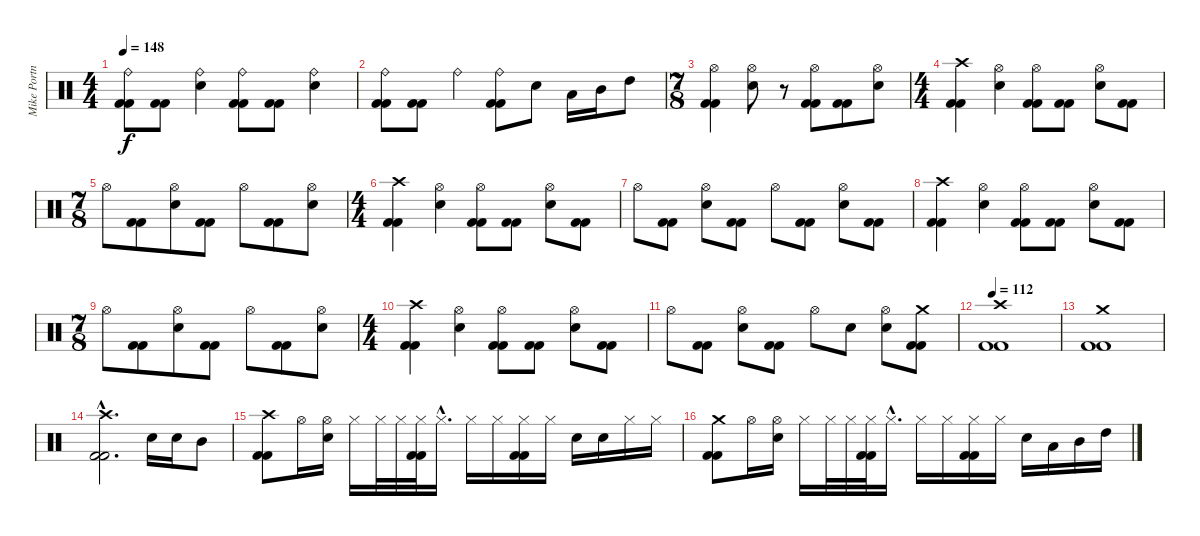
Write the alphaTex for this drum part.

\track ("Mike Portnoy - Drum" "Mike Portn") {instrument percussion}
\staff {score}
\articulation defaults
\ts (4 4)
\tempo 148
\clef neutral
\ks c
("Ride (bell)" "Kick (hit) 2" "Kick (hit) 2").8{dy f} ("Kick (hit) 2" "Kick (hit) 2").8 ("Ride (bell)" "Snare (hit) 2").4 ("Ride (bell)" "Kick (hit) 2" "Kick (hit) 2").8 ("Kick (hit) 2" "Kick (hit) 2").8 ("Ride (bell)" "Snare (hit) 2").4 |
("Ride (bell)" "Kick (hit) 2" "Kick (hit) 2").8 ("Kick (hit) 2" "Kick (hit) 2").8 "Ride (bell)".4 ("Ride (bell)" "Kick (hit) 2" "Kick (hit) 2").8 "Snare (hit) 2".8 "Low Tom (hit)".16 "Mid Tom (hit)".16 "High Tom (hit)".8 |
\ts (7 8)
("Hi-Hat (open)" "Kick (hit) 2" "Kick (hit) 2").4 ("Hi-Hat (open)" "Snare (hit) 2").8 r.8 ("Hi-Hat (open)" "Kick (hit) 2" "Kick (hit) 2").8 ("Kick (hit) 2" "Kick (hit) 2").8 ("Hi-Hat (open)" "Snare (hit) 2").8 |
\ts (4 4)
("Crash high (hit)" "Kick (hit) 2" "Kick (hit) 2").4 ("Hi-Hat (open)" "Snare (hit) 2").4 ("Hi-Hat (open)" "Kick (hit) 2" "Kick (hit) 2").8 ("Kick (hit) 2" "Kick (hit) 2").8 ("Hi-Hat (open)" "Snare (hit) 2").8 ("Kick (hit) 2" "Kick (hit) 2").8 |
\ts (7 8)
"Hi-Hat (open)".8 ("Kick (hit) 2" "Kick (hit) 2").8 ("Hi-Hat (open)" "Snare (hit) 2").8 ("Kick (hit) 2" "Kick (hit) 2").8 "Hi-Hat (open)".8 ("Kick (hit) 2" "Kick (hit) 2").8 ("Hi-Hat (open)" "Snare (hit) 2").8 |
\ts (4 4)
("Crash high (hit)" "Kick (hit) 2" "Kick (hit) 2").4 ("Hi-Hat (open)" "Snare (hit) 2").4 ("Hi-Hat (open)" "Kick (hit) 2" "Kick (hit) 2").8 ("Kick (hit) 2" "Kick (hit) 2").8 ("Hi-Hat (open)" "Snare (hit) 2").8 ("Kick (hit) 2" "Kick (hit) 2").8 |
"Hi-Hat (open)".8 ("Kick (hit) 2" "Kick (hit) 2").8 ("Hi-Hat (open)" "Snare (hit) 2").8 ("Kick (hit) 2" "Kick (hit) 2").8 "Hi-Hat (open)".8 ("Kick (hit) 2" "Kick (hit) 2").8 ("Hi-Hat (open)" "Snare (hit) 2").8 ("Kick (hit) 2" "Kick (hit) 2").8 |
("Crash high (hit)" "Kick (hit) 2" "Kick (hit) 2").4 ("Hi-Hat (open)" "Snare (hit) 2").4 ("Hi-Hat (open)" "Kick (hit) 2" "Kick (hit) 2").8 ("Kick (hit) 2" "Kick (hit) 2").8 ("Hi-Hat (open)" "Snare (hit) 2").8 ("Kick (hit) 2" "Kick (hit) 2").8 |
\ts (7 8)
"Hi-Hat (open)".8 ("Kick (hit) 2" "Kick (hit) 2").8 ("Hi-Hat (open)" "Snare (hit) 2").8 ("Kick (hit) 2" "Kick (hit) 2").8 "Hi-Hat (open)".8 ("Kick (hit) 2" "Kick (hit) 2").8 ("Hi-Hat (open)" "Snare (hit) 2").8 |
\ts (4 4)
("Crash high (hit)" "Kick (hit) 2" "Kick (hit) 2").4 ("Hi-Hat (open)" "Snare (hit) 2").4 ("Hi-Hat (open)" "Kick (hit) 2" "Kick (hit) 2").8 ("Kick (hit) 2" "Kick (hit) 2").8 ("Hi-Hat (open)" "Snare (hit) 2").8 ("Kick (hit) 2" "Kick (hit) 2").8 |
"Hi-Hat (open)".8 ("Kick (hit) 2" "Kick (hit) 2").8 ("Hi-Hat (open)" "Snare (hit) 2").8 ("Kick (hit) 2" "Kick (hit) 2").8 "Hi-Hat (open)".8 "Snare (hit) 2".8 ("Hi-Hat (open)" "Snare (hit) 2").8 ("Crash medium (hit)" "Kick (hit) 2" "Kick (hit) 2").8 |
\tempo 112
("Crash high (hit)" "Kick (hit) 2" "Kick (hit) 2").1 |
("Crash medium (hit)" "Kick (hit) 2" "Kick (hit) 2").1 |
("Crash high (hit)"{hac} "Kick (hit) 2"{hac} "Kick (hit) 2"{hac}).2{d} "Snare (hit) 2".16 "Snare (hit) 2".16 "Mid Tom (hit)".8 |
("Crash high (hit)" "Kick (hit) 2" "Kick (hit) 2").8 "Hi-Hat (open)".16 ("Hi-Hat (open)" "Snare (hit) 2").16 "Hi-Hat (closed)".16 "Hi-Hat (closed)".32 "Hi-Hat (closed)".32 ("Hi-Hat (closed)" "Kick (hit) 2" "Kick (hit) 2").32 "Hi-Hat (closed)"{hac}.16{d} "Hi-Hat (closed)".16 "Hi-Hat (closed)".16 ("Hi-Hat (closed)" "Kick (hit) 2" "Kick (hit) 2").16 "Hi-Hat (closed)".16 "Snare (hit) 2".16 "Snare (hit) 2".16 "Hi-Hat (closed)".16 "Hi-Hat (closed)".16 |
("Crash medium (hit)" "Kick (hit) 2" "Kick (hit) 2").8 "Hi-Hat (open)".16 ("Hi-Hat (open)" "Snare (hit) 2").16 "Hi-Hat (closed)".16 "Hi-Hat (closed)".32 "Hi-Hat (closed)".32 ("Hi-Hat (closed)" "Kick (hit) 2" "Kick (hit) 2").32 "Hi-Hat (closed)"{hac}.16{d} "Hi-Hat (closed)".16 "Hi-Hat (closed)".16 ("Hi-Hat (closed)" "Kick (hit) 2" "Kick (hit) 2").16 "Hi-Hat (closed)".16 "Snare (hit) 2".16 "Low Tom (hit)".16 "Mid Tom (hit)".16 "High Tom (hit)".16
